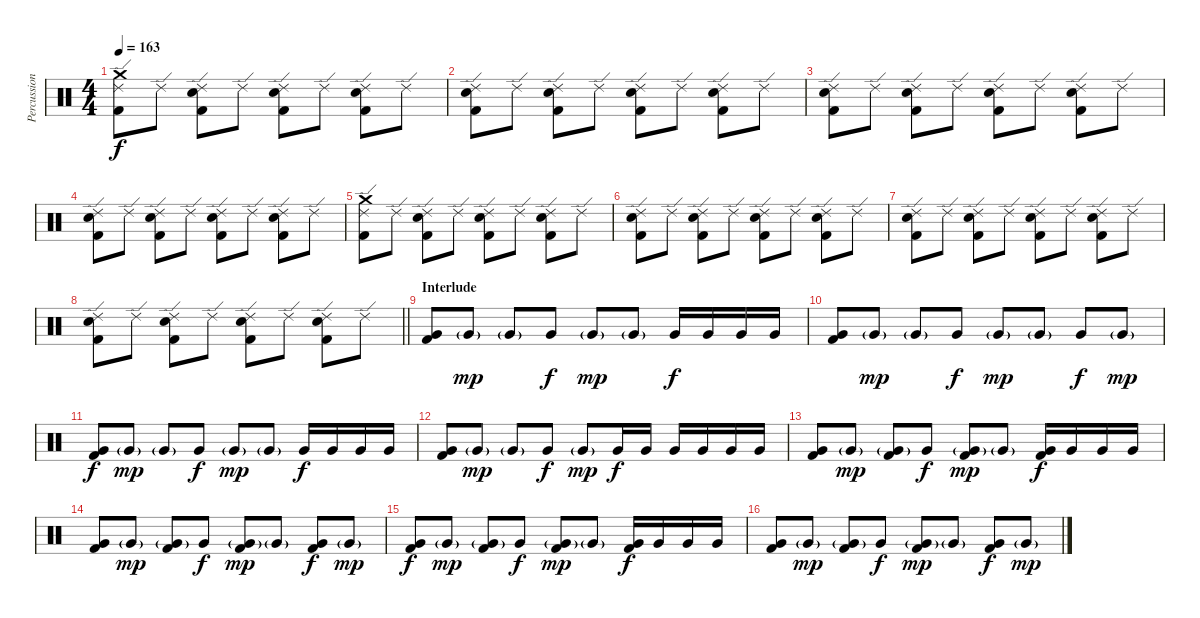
\track ("Percussion" "Percussion") {instrument percussion}
\staff {score}
\articulation defaults
\ts (4 4)
\tempo 163
\clef neutral
\ks c
("Crash medium (hit)" "Ride (edge) 2" "Kick (hit) 2").8{dy f} "Ride (edge) 2".8 ("Ride (edge) 2" "Snare (hit) 2" "Kick (hit) 2").8 "Ride (edge) 2".8 ("Ride (edge) 2" "Snare (hit) 2" "Kick (hit) 2").8 "Ride (edge) 2".8 ("Ride (edge) 2" "Snare (hit) 2" "Kick (hit) 2").8 "Ride (edge) 2".8 |
("Ride (edge) 2" "Snare (hit) 2" "Kick (hit) 2").8 "Ride (edge) 2".8 ("Ride (edge) 2" "Snare (hit) 2" "Kick (hit) 2").8 "Ride (edge) 2".8 ("Ride (edge) 2" "Snare (hit) 2" "Kick (hit) 2").8 "Ride (edge) 2".8 ("Ride (edge) 2" "Snare (hit) 2" "Kick (hit) 2").8 "Ride (edge) 2".8 |
("Ride (edge) 2" "Snare (hit) 2" "Kick (hit) 2").8 "Ride (edge) 2".8 ("Ride (edge) 2" "Snare (hit) 2" "Kick (hit) 2").8 "Ride (edge) 2".8 ("Ride (edge) 2" "Snare (hit) 2" "Kick (hit) 2").8 "Ride (edge) 2".8 ("Ride (edge) 2" "Snare (hit) 2" "Kick (hit) 2").8 "Ride (edge) 2".8 |
("Ride (edge) 2" "Snare (hit) 2" "Kick (hit) 2").8 "Ride (edge) 2".8 ("Ride (edge) 2" "Snare (hit) 2" "Kick (hit) 2").8 "Ride (edge) 2".8 ("Ride (edge) 2" "Snare (hit) 2" "Kick (hit) 2").8 "Ride (edge) 2".8 ("Ride (edge) 2" "Snare (hit) 2" "Kick (hit) 2").8 "Ride (edge) 2".8 |
("Crash medium (hit)" "Ride (edge) 2" "Kick (hit) 2").8 "Ride (edge) 2".8 ("Ride (edge) 2" "Snare (hit) 2" "Kick (hit) 2").8 "Ride (edge) 2".8 ("Ride (edge) 2" "Snare (hit) 2" "Kick (hit) 2").8 "Ride (edge) 2".8 ("Ride (edge) 2" "Snare (hit) 2" "Kick (hit) 2").8 "Ride (edge) 2".8 |
("Ride (edge) 2" "Snare (hit) 2" "Kick (hit) 2").8 "Ride (edge) 2".8 ("Ride (edge) 2" "Snare (hit) 2" "Kick (hit) 2").8 "Ride (edge) 2".8 ("Ride (edge) 2" "Snare (hit) 2" "Kick (hit) 2").8 "Ride (edge) 2".8 ("Ride (edge) 2" "Snare (hit) 2" "Kick (hit) 2").8 "Ride (edge) 2".8 |
("Ride (edge) 2" "Snare (hit) 2" "Kick (hit) 2").8 "Ride (edge) 2".8 ("Ride (edge) 2" "Snare (hit) 2" "Kick (hit) 2").8 "Ride (edge) 2".8 ("Ride (edge) 2" "Snare (hit) 2" "Kick (hit) 2").8 "Ride (edge) 2".8 ("Ride (edge) 2" "Snare (hit) 2" "Kick (hit) 2").8 "Ride (edge) 2".8 |
\barLineRight lightlight
("Ride (edge) 2" "Snare (hit) 2" "Kick (hit) 2").8 "Ride (edge) 2".8 ("Ride (edge) 2" "Snare (hit) 2" "Kick (hit) 2").8 "Ride (edge) 2".8 ("Ride (edge) 2" "Snare (hit) 2" "Kick (hit) 2").8 "Ride (edge) 2".8 ("Ride (edge) 2" "Snare (hit) 2" "Kick (hit) 2").8 "Ride (edge) 2".8 |
\section ("" "Interlude")
("Very Low Tom (hit)" "Kick (hit) 2").8 "Very Low Tom (hit)"{g}.8{dy mp} "Very Low Tom (hit)"{g}.8 "Very Low Tom (hit)".8{dy f} "Very Low Tom (hit)"{g}.8{dy mp} "Very Low Tom (hit)"{g}.8 "Very Low Tom (hit)".16{dy f} "Very Low Tom (hit)".16 "Very Low Tom (hit)".16 "Very Low Tom (hit)".16 |
("Very Low Tom (hit)" "Kick (hit) 2").8 "Very Low Tom (hit)"{g}.8{dy mp} "Very Low Tom (hit)"{g}.8 "Very Low Tom (hit)".8{dy f} "Very Low Tom (hit)"{g}.8{dy mp} "Very Low Tom (hit)"{g}.8 "Very Low Tom (hit)".8{dy f} "Very Low Tom (hit)"{g}.8{dy mp} |
("Very Low Tom (hit)" "Kick (hit) 2").8{dy f} "Very Low Tom (hit)"{g}.8{dy mp} "Very Low Tom (hit)"{g}.8 "Very Low Tom (hit)".8{dy f} "Very Low Tom (hit)"{g}.8{dy mp} "Very Low Tom (hit)"{g}.8 "Very Low Tom (hit)".16{dy f} "Very Low Tom (hit)".16 "Very Low Tom (hit)".16 "Very Low Tom (hit)".16 |
("Very Low Tom (hit)" "Kick (hit) 2").8 "Very Low Tom (hit)"{g}.8{dy mp} "Very Low Tom (hit)"{g}.8 "Very Low Tom (hit)".8{dy f} "Very Low Tom (hit)"{g}.8{dy mp} "Very Low Tom (hit)".16{dy f} "Very Low Tom (hit)".16 "Very Low Tom (hit)".16 "Very Low Tom (hit)".16 "Very Low Tom (hit)".16 "Very Low Tom (hit)".16 |
("Very Low Tom (hit)" "Kick (hit) 2").8 "Very Low Tom (hit)"{g}.8{dy mp} ("Very Low Tom (hit)"{g} "Kick (hit) 2").8 "Very Low Tom (hit)".8{dy f} ("Very Low Tom (hit)"{g} "Kick (hit) 2").8{dy mp} "Very Low Tom (hit)"{g}.8 ("Very Low Tom (hit)" "Kick (hit) 2").16{dy f} "Very Low Tom (hit)".16 "Very Low Tom (hit)".16 "Very Low Tom (hit)".16 |
("Very Low Tom (hit)" "Kick (hit) 2").8 "Very Low Tom (hit)"{g}.8{dy mp} ("Very Low Tom (hit)"{g} "Kick (hit) 2").8 "Very Low Tom (hit)".8{dy f} ("Very Low Tom (hit)"{g} "Kick (hit) 2").8{dy mp} "Very Low Tom (hit)"{g}.8 ("Very Low Tom (hit)" "Kick (hit) 2").8{dy f} "Very Low Tom (hit)"{g}.8{dy mp} |
("Very Low Tom (hit)" "Kick (hit) 2").8{dy f} "Very Low Tom (hit)"{g}.8{dy mp} ("Very Low Tom (hit)"{g} "Kick (hit) 2").8 "Very Low Tom (hit)".8{dy f} ("Very Low Tom (hit)"{g} "Kick (hit) 2").8{dy mp} "Very Low Tom (hit)"{g}.8 ("Very Low Tom (hit)" "Kick (hit) 2").16{dy f} "Very Low Tom (hit)".16 "Very Low Tom (hit)".16 "Very Low Tom (hit)".16 |
("Very Low Tom (hit)" "Kick (hit) 2").8 "Very Low Tom (hit)"{g}.8{dy mp} ("Very Low Tom (hit)"{g} "Kick (hit) 2").8 "Very Low Tom (hit)".8{dy f} ("Very Low Tom (hit)"{g} "Kick (hit) 2").8{dy mp} "Very Low Tom (hit)"{g}.8 ("Very Low Tom (hit)" "Kick (hit) 2").8{dy f} "Very Low Tom (hit)"{g}.8{dy mp}
